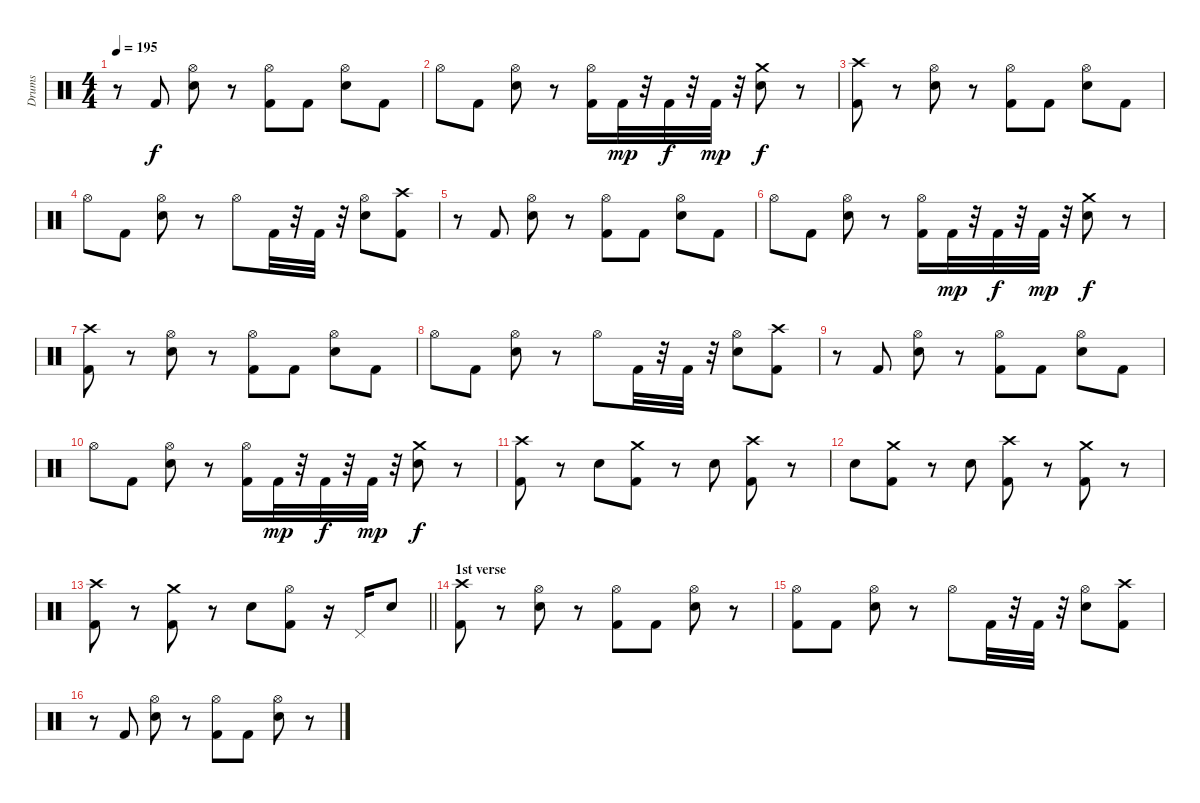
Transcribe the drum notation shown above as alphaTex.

\track ("Drums" "Drums") {instrument percussion}
\staff {score}
\articulation defaults
\ts (4 4)
\tempo 195
\clef neutral
\ks c
r.8{dy f} "Kick (hit) 2".8 ("Electric Snare (hit)" "Hi-Hat (open)").8 r.8 ("Hi-Hat (open)" "Kick (hit) 2").8 "Kick (hit) 2".8 ("Electric Snare (hit)" "Hi-Hat (open)").8 "Kick (hit) 2".8 |
"Hi-Hat (open)".8 "Kick (hit) 2".8 ("Electric Snare (hit)" "Hi-Hat (open)").8 r.8 ("Kick (hit) 2" "Hi-Hat (open)").16 "Kick (hit) 2".32{dy mp} r.32 "Kick (hit) 2".32{dy f} r.32 "Kick (hit) 2".32{dy mp} r.32 ("Electric Snare (hit)" "Crash medium (hit)").8{dy f} r.8 |
("Kick (hit) 2" "Crash high (hit)").8 r.8 ("Electric Snare (hit)" "Hi-Hat (open)").8 r.8 ("Hi-Hat (open)" "Kick (hit) 2").8 "Kick (hit) 2".8 ("Electric Snare (hit)" "Hi-Hat (open)").8 "Kick (hit) 2".8 |
"Hi-Hat (open)".8 "Kick (hit) 2".8 ("Electric Snare (hit)" "Hi-Hat (open)").8 r.8 "Hi-Hat (open)".8 "Kick (hit) 2".32 r.32 "Kick (hit) 2".32 r.32 ("Electric Snare (hit)" "Hi-Hat (open)").8 ("Kick (hit) 2" "Crash high (hit)").8 |
r.8 "Kick (hit) 2".8 ("Electric Snare (hit)" "Hi-Hat (open)").8 r.8 ("Hi-Hat (open)" "Kick (hit) 2").8 "Kick (hit) 2".8 ("Electric Snare (hit)" "Hi-Hat (open)").8 "Kick (hit) 2".8 |
"Hi-Hat (open)".8 "Kick (hit) 2".8 ("Electric Snare (hit)" "Hi-Hat (open)").8 r.8 ("Kick (hit) 2" "Hi-Hat (open)").16 "Kick (hit) 2".32{dy mp} r.32 "Kick (hit) 2".32{dy f} r.32 "Kick (hit) 2".32{dy mp} r.32 ("Electric Snare (hit)" "Crash medium (hit)").8{dy f} r.8 |
("Kick (hit) 2" "Crash high (hit)").8 r.8 ("Electric Snare (hit)" "Hi-Hat (open)").8 r.8 ("Hi-Hat (open)" "Kick (hit) 2").8 "Kick (hit) 2".8 ("Electric Snare (hit)" "Hi-Hat (open)").8 "Kick (hit) 2".8 |
"Hi-Hat (open)".8 "Kick (hit) 2".8 ("Electric Snare (hit)" "Hi-Hat (open)").8 r.8 "Hi-Hat (open)".8 "Kick (hit) 2".32 r.32 "Kick (hit) 2".32 r.32 ("Electric Snare (hit)" "Hi-Hat (open)").8 ("Kick (hit) 2" "Crash high (hit)").8 |
r.8 "Kick (hit) 2".8 ("Electric Snare (hit)" "Hi-Hat (open)").8 r.8 ("Hi-Hat (open)" "Kick (hit) 2").8 "Kick (hit) 2".8 ("Electric Snare (hit)" "Hi-Hat (open)").8 "Kick (hit) 2".8 |
"Hi-Hat (open)".8 "Kick (hit) 2".8 ("Electric Snare (hit)" "Hi-Hat (open)").8 r.8 ("Kick (hit) 2" "Hi-Hat (open)").16 "Kick (hit) 2".32{dy mp} r.32 "Kick (hit) 2".32{dy f} r.32 "Kick (hit) 2".32{dy mp} r.32 ("Electric Snare (hit)" "Crash medium (hit)").8{dy f} r.8 |
("Kick (hit) 2" "Crash high (hit)").8 r.8 "Electric Snare (hit)".8 ("Kick (hit) 2" "Crash medium (hit)").8 r.8 "Electric Snare (hit)".8 ("Kick (hit) 2" "Crash high (hit)").8 r.8 |
"Electric Snare (hit)".8 ("Kick (hit) 2" "Crash medium (hit)").8 r.8 "Electric Snare (hit)".8 ("Kick (hit) 2" "Crash high (hit)").8 r.8 ("Crash medium (hit)" "Kick (hit) 2").8 r.8 |
\barLineRight lightlight
("Kick (hit) 2" "Crash high (hit)").8 r.8 ("Crash medium (hit)" "Kick (hit) 2").8 r.8 "Electric Snare (hit)".8 ("Kick (hit) 2" "Hi-Hat (open)").8 r.16 "Pedal Hi-Hat (hit)".16 "Electric Snare (hit)".8 |
\section ("" "1st verse")
("Kick (hit) 2" "Crash high (hit)").8 r.8 ("Electric Snare (hit)" "Hi-Hat (open)").8 r.8 ("Kick (hit) 2" "Hi-Hat (open)").8 "Kick (hit) 2".8 ("Electric Snare (hit)" "Hi-Hat (open)").8 r.8 |
("Kick (hit) 2" "Hi-Hat (open)").8 "Kick (hit) 2".8 ("Electric Snare (hit)" "Hi-Hat (open)").8 r.8 "Hi-Hat (open)".8 "Kick (hit) 2".32 r.32 "Kick (hit) 2".32 r.32 ("Electric Snare (hit)" "Hi-Hat (open)").8 ("Kick (hit) 2" "Crash high (hit)").8 |
r.8 "Kick (hit) 2".8 ("Electric Snare (hit)" "Hi-Hat (open)").8 r.8 ("Kick (hit) 2" "Hi-Hat (open)").8 "Kick (hit) 2".8 ("Electric Snare (hit)" "Hi-Hat (open)").8 r.8
